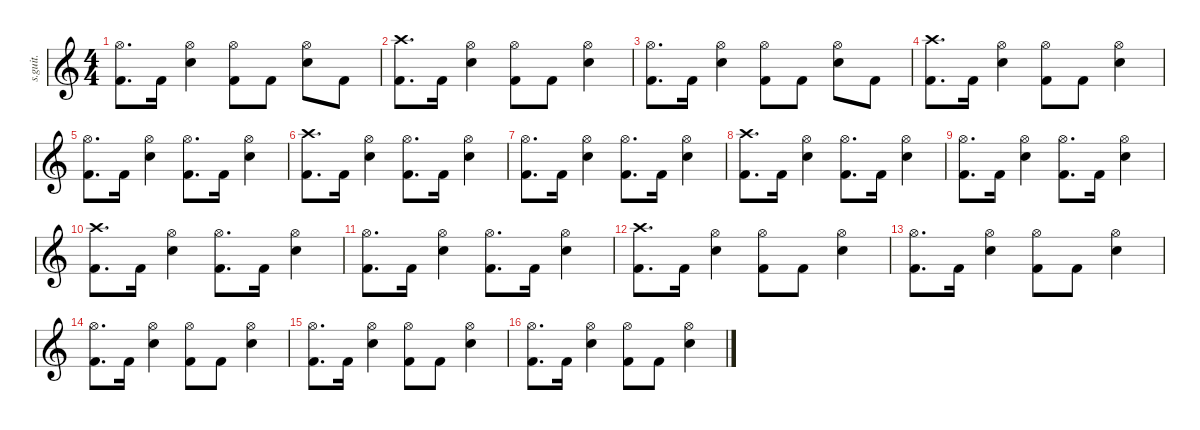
\defaultSystemsLayout 4
\hideDynamics
\bracketExtendMode nobrackets
\track ("" "s.guit.") {instrument percussion}
\staff {score}
\articulation defaults
\ts (4 4)
\tempo (180 hide)
\clef g2
\ks c
("Kick (hit) 2" "Hi-Hat (open)").8{d dy f} "Kick (hit) 2".16 ("Snare (hit) 2" "Hi-Hat (open)").4 ("Kick (hit) 2" "Hi-Hat (open)").8 "Kick (hit) 2".8 ("Snare (hit) 2" "Hi-Hat (open)").8 "Kick (hit) 2".8 |
("Kick (hit) 2" "Crash high (hit)").8{d} "Kick (hit) 2".16 ("Snare (hit) 2" "Hi-Hat (open)").4 ("Kick (hit) 2" "Hi-Hat (open)").8 "Kick (hit) 2".8 ("Snare (hit) 2" "Hi-Hat (open)").4 |
("Kick (hit) 2" "Hi-Hat (open)").8{d} "Kick (hit) 2".16 ("Snare (hit) 2" "Hi-Hat (open)").4 ("Kick (hit) 2" "Hi-Hat (open)").8 "Kick (hit) 2".8 ("Snare (hit) 2" "Hi-Hat (open)").8 "Kick (hit) 2".8 |
("Kick (hit) 2" "Crash high (hit)").8{d} "Kick (hit) 2".16 ("Snare (hit) 2" "Hi-Hat (open)").4 ("Kick (hit) 2" "Hi-Hat (open)").8 "Kick (hit) 2".8 ("Snare (hit) 2" "Hi-Hat (open)").4 |
("Kick (hit) 2" "Hi-Hat (open)").8{d} "Kick (hit) 2".16 ("Snare (hit) 2" "Hi-Hat (open)").4 ("Kick (hit) 2" "Hi-Hat (open)").8{d} "Kick (hit) 2".16 ("Snare (hit) 2" "Hi-Hat (open)").4 |
("Kick (hit) 2" "Crash high (hit)").8{d} "Kick (hit) 2".16 ("Snare (hit) 2" "Hi-Hat (open)").4 ("Kick (hit) 2" "Hi-Hat (open)").8{d} "Kick (hit) 2".16 ("Snare (hit) 2" "Hi-Hat (open)").4 |
("Kick (hit) 2" "Hi-Hat (open)").8{d} "Kick (hit) 2".16 ("Snare (hit) 2" "Hi-Hat (open)").4 ("Kick (hit) 2" "Hi-Hat (open)").8{d} "Kick (hit) 2".16 ("Snare (hit) 2" "Hi-Hat (open)").4 |
("Kick (hit) 2" "Crash high (hit)").8{d} "Kick (hit) 2".16 ("Snare (hit) 2" "Hi-Hat (open)").4 ("Kick (hit) 2" "Hi-Hat (open)").8{d} "Kick (hit) 2".16 ("Snare (hit) 2" "Hi-Hat (open)").4 |
("Kick (hit) 2" "Hi-Hat (open)").8{d} "Kick (hit) 2".16 ("Snare (hit) 2" "Hi-Hat (open)").4 ("Kick (hit) 2" "Hi-Hat (open)").8{d} "Kick (hit) 2".16 ("Snare (hit) 2" "Hi-Hat (open)").4 |
("Kick (hit) 2" "Crash high (hit)").8{d} "Kick (hit) 2".16 ("Snare (hit) 2" "Hi-Hat (open)").4 ("Kick (hit) 2" "Hi-Hat (open)").8{d} "Kick (hit) 2".16 ("Snare (hit) 2" "Hi-Hat (open)").4 |
("Kick (hit) 2" "Hi-Hat (open)").8{d} "Kick (hit) 2".16 ("Snare (hit) 2" "Hi-Hat (open)").4 ("Kick (hit) 2" "Hi-Hat (open)").8{d} "Kick (hit) 2".16 ("Snare (hit) 2" "Hi-Hat (open)").4 |
("Kick (hit) 2" "Crash high (hit)").8{d} "Kick (hit) 2".16 ("Snare (hit) 2" "Hi-Hat (open)").4 ("Kick (hit) 2" "Hi-Hat (open)").8 "Kick (hit) 2".8 ("Snare (hit) 2" "Hi-Hat (open)").4 |
("Kick (hit) 2" "Hi-Hat (open)").8{d} "Kick (hit) 2".16 ("Snare (hit) 2" "Hi-Hat (open)").4 ("Kick (hit) 2" "Hi-Hat (open)").8 "Kick (hit) 2".8 ("Snare (hit) 2" "Hi-Hat (open)").4 |
("Kick (hit) 2" "Hi-Hat (open)").8{d} "Kick (hit) 2".16 ("Snare (hit) 2" "Hi-Hat (open)").4 ("Kick (hit) 2" "Hi-Hat (open)").8 "Kick (hit) 2".8 ("Snare (hit) 2" "Hi-Hat (open)").4 |
("Kick (hit) 2" "Hi-Hat (open)").8{d} "Kick (hit) 2".16 ("Snare (hit) 2" "Hi-Hat (open)").4 ("Kick (hit) 2" "Hi-Hat (open)").8 "Kick (hit) 2".8 ("Snare (hit) 2" "Hi-Hat (open)").4 |
("Kick (hit) 2" "Hi-Hat (open)").8{d} "Kick (hit) 2".16 ("Snare (hit) 2" "Hi-Hat (open)").4 ("Kick (hit) 2" "Hi-Hat (open)").8 "Kick (hit) 2".8 ("Snare (hit) 2" "Hi-Hat (open)").4
